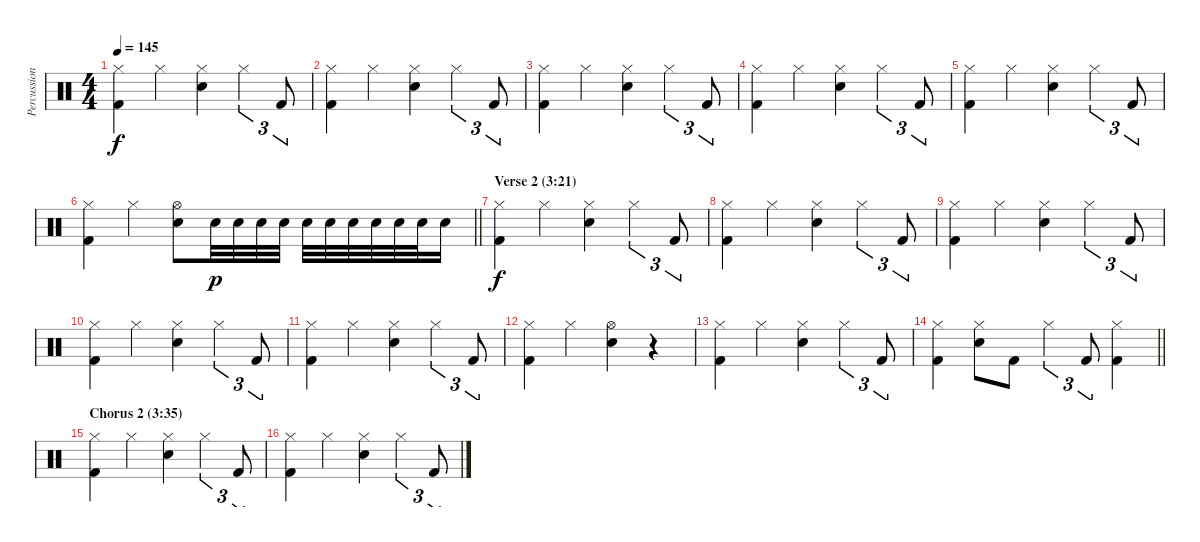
\track ("Percussion" "Percussion") {instrument percussion}
\staff {score}
\articulation defaults
\ts (4 4)
\tempo 145
\clef neutral
\ks c
("Hi-Hat (closed)" "Kick (hit) 2").4{dy f} "Hi-Hat (closed)".4 ("Hi-Hat (closed)" "Electric Snare (hit)").4 "Hi-Hat (closed)".4{tu (3 2)} "Kick (hit) 2".8{tu (3 2)} |
("Hi-Hat (closed)" "Kick (hit) 2").4 "Hi-Hat (closed)".4 ("Hi-Hat (closed)" "Electric Snare (hit)").4 "Hi-Hat (closed)".4{tu (3 2)} "Kick (hit) 2".8{tu (3 2)} |
("Hi-Hat (closed)" "Kick (hit) 2").4 "Hi-Hat (closed)".4 ("Hi-Hat (closed)" "Electric Snare (hit)").4 "Hi-Hat (closed)".4{tu (3 2)} "Kick (hit) 2".8{tu (3 2)} |
("Hi-Hat (closed)" "Kick (hit) 2").4 "Hi-Hat (closed)".4 ("Hi-Hat (closed)" "Electric Snare (hit)").4 "Hi-Hat (closed)".4{tu (3 2)} "Kick (hit) 2".8{tu (3 2)} |
("Hi-Hat (closed)" "Kick (hit) 2").4 "Hi-Hat (closed)".4 ("Hi-Hat (closed)" "Electric Snare (hit)").4 "Hi-Hat (closed)".4{tu (3 2)} "Kick (hit) 2".8{tu (3 2)} |
\barLineRight lightlight
("Hi-Hat (closed)" "Kick (hit) 2").4 "Hi-Hat (closed)".4 ("Hi-Hat (open)" "Electric Snare (hit)").8 "Electric Snare (hit)".32{dy p} "Electric Snare (hit)".32 "Electric Snare (hit)".32 "Electric Snare (hit)".32 "Electric Snare (hit)".32 "Electric Snare (hit)".32 "Electric Snare (hit)".32 "Electric Snare (hit)".32 "Electric Snare (hit)".32 "Electric Snare (hit)".32 "Electric Snare (hit)".16 |
\section ("" "Verse 2 (3:21)")
("Hi-Hat (closed)" "Kick (hit) 2").4{dy f} "Hi-Hat (closed)".4 ("Hi-Hat (closed)" "Electric Snare (hit)").4 "Hi-Hat (closed)".4{tu (3 2)} "Kick (hit) 2".8{tu (3 2)} |
("Hi-Hat (closed)" "Kick (hit) 2").4 "Hi-Hat (closed)".4 ("Hi-Hat (closed)" "Electric Snare (hit)").4 "Hi-Hat (closed)".4{tu (3 2)} "Kick (hit) 2".8{tu (3 2)} |
("Hi-Hat (closed)" "Kick (hit) 2").4 "Hi-Hat (closed)".4 ("Hi-Hat (closed)" "Electric Snare (hit)").4 "Hi-Hat (closed)".4{tu (3 2)} "Kick (hit) 2".8{tu (3 2)} |
("Hi-Hat (closed)" "Kick (hit) 2").4 "Hi-Hat (closed)".4 ("Hi-Hat (closed)" "Electric Snare (hit)").4 "Hi-Hat (closed)".4{tu (3 2)} "Kick (hit) 2".8{tu (3 2)} |
("Hi-Hat (closed)" "Kick (hit) 2").4 "Hi-Hat (closed)".4 ("Hi-Hat (closed)" "Electric Snare (hit)").4 "Hi-Hat (closed)".4{tu (3 2)} "Kick (hit) 2".8{tu (3 2)} |
("Hi-Hat (closed)" "Kick (hit) 2").4 "Hi-Hat (closed)".4 ("Hi-Hat (open)" "Electric Snare (hit)").4 r.4 |
("Hi-Hat (closed)" "Kick (hit) 2").4 "Hi-Hat (closed)".4 ("Hi-Hat (closed)" "Electric Snare (hit)").4 "Hi-Hat (closed)".4{tu (3 2)} "Kick (hit) 2".8{tu (3 2)} |
\barLineRight lightlight
("Hi-Hat (closed)" "Kick (hit) 2").4 ("Hi-Hat (closed)" "Electric Snare (hit)").8 "Kick (hit) 2".8 "Hi-Hat (closed)".4{tu (3 2)} "Kick (hit) 2".8{tu (3 2)} ("Hi-Hat (closed)" "Kick (hit) 2").4 |
\section ("" "Chorus 2 (3:35)")
("Hi-Hat (closed)" "Kick (hit) 2").4 "Hi-Hat (closed)".4 ("Hi-Hat (closed)" "Electric Snare (hit)").4 "Hi-Hat (closed)".4{tu (3 2)} "Kick (hit) 2".8{tu (3 2)} |
("Hi-Hat (closed)" "Kick (hit) 2").4 "Hi-Hat (closed)".4 ("Hi-Hat (closed)" "Electric Snare (hit)").4 "Hi-Hat (closed)".4{tu (3 2)} "Kick (hit) 2".8{tu (3 2)}
